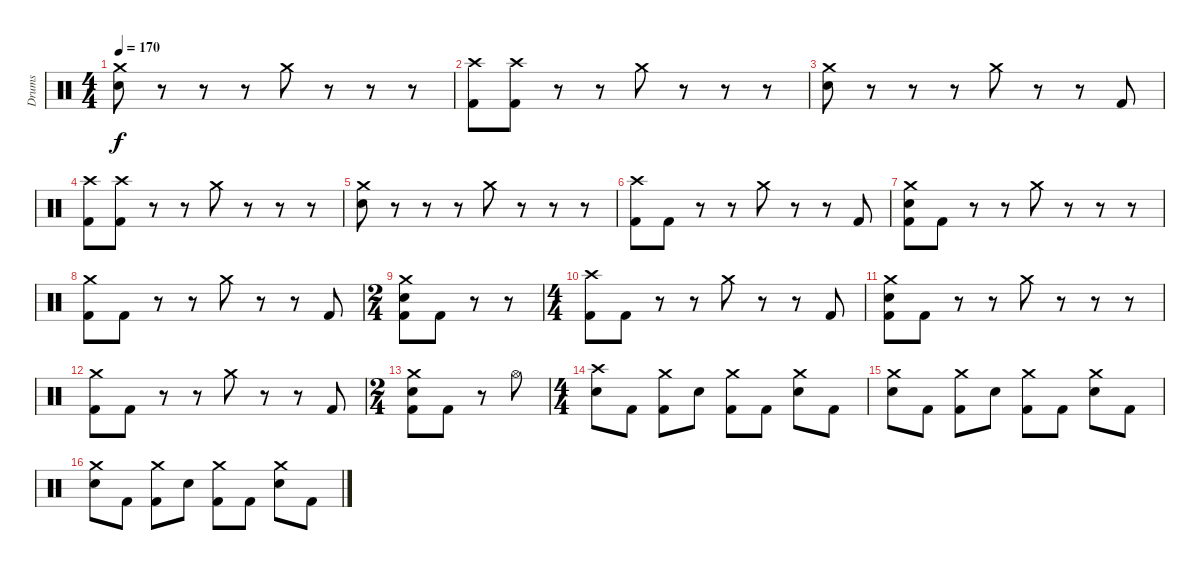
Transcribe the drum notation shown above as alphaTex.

\track ("Drums" "Drums") {instrument percussion}
\staff {score}
\articulation defaults
\ts (4 4)
\tempo 170
\clef neutral
\ks c
("Crash medium (hit)" "Electric Snare (hit)").8{dy f} r.8 r.8 r.8 "Crash medium (hit)".8 r.8 r.8 r.8 |
("Crash high (hit)" "Kick (hit) 2").8 ("Crash high (hit)" "Kick (hit) 2").8 r.8 r.8 "Crash medium (hit)".8 r.8 r.8 r.8 |
("Crash medium (hit)" "Electric Snare (hit)").8 r.8 r.8 r.8 "Crash medium (hit)".8 r.8 r.8 "Kick (hit) 2".8 |
("Crash high (hit)" "Kick (hit) 2").8 ("Crash high (hit)" "Kick (hit) 2").8 r.8 r.8 "Crash medium (hit)".8 r.8 r.8 r.8 |
("Crash medium (hit)" "Electric Snare (hit)").8 r.8 r.8 r.8 "Crash medium (hit)".8 r.8 r.8 r.8 |
("Crash high (hit)" "Kick (hit) 2").8 "Kick (hit) 2".8 r.8 r.8 "Crash medium (hit)".8 r.8 r.8 "Kick (hit) 2".8 |
("Crash medium (hit)" "Electric Snare (hit)" "Kick (hit) 2").8 "Kick (hit) 2".8 r.8 r.8 "Crash medium (hit)".8 r.8 r.8 r.8 |
("Crash medium (hit)" "Kick (hit) 2").8 "Kick (hit) 2".8 r.8 r.8 "Crash medium (hit)".8 r.8 r.8 "Kick (hit) 2".8 |
\ts (2 4)
("Crash medium (hit)" "Electric Snare (hit)" "Kick (hit) 2").8 "Kick (hit) 2".8 r.8 r.8 |
\ts (4 4)
("Crash high (hit)" "Kick (hit) 2").8 "Kick (hit) 2".8 r.8 r.8 "Crash medium (hit)".8 r.8 r.8 "Kick (hit) 2".8 |
("Crash medium (hit)" "Electric Snare (hit)" "Kick (hit) 2").8 "Kick (hit) 2".8 r.8 r.8 "Crash medium (hit)".8 r.8 r.8 r.8 |
("Crash medium (hit)" "Kick (hit) 2").8 "Kick (hit) 2".8 r.8 r.8 "Crash medium (hit)".8 r.8 r.8 "Kick (hit) 2".8 |
\ts (2 4)
("Crash medium (hit)" "Electric Snare (hit)" "Kick (hit) 2").8 "Kick (hit) 2".8 r.8 "Hi-Hat (open)".8 |
\ts (4 4)
("Crash high (hit)" "Electric Snare (hit)").8 "Kick (hit) 2".8 ("Crash medium (hit)" "Kick (hit) 2").8 "Electric Snare (hit)".8 ("Crash medium (hit)" "Kick (hit) 2").8 "Kick (hit) 2".8 ("Crash medium (hit)" "Electric Snare (hit)").8 "Kick (hit) 2".8 |
("Crash medium (hit)" "Electric Snare (hit)").8 "Kick (hit) 2".8 ("Crash medium (hit)" "Kick (hit) 2").8 "Electric Snare (hit)".8 ("Crash medium (hit)" "Kick (hit) 2").8 "Kick (hit) 2".8 ("Crash medium (hit)" "Electric Snare (hit)").8 "Kick (hit) 2".8 |
("Crash medium (hit)" "Electric Snare (hit)").8 "Kick (hit) 2".8 ("Crash medium (hit)" "Kick (hit) 2").8 "Electric Snare (hit)".8 ("Crash medium (hit)" "Kick (hit) 2").8 "Kick (hit) 2".8 ("Crash medium (hit)" "Electric Snare (hit)").8 "Kick (hit) 2".8
